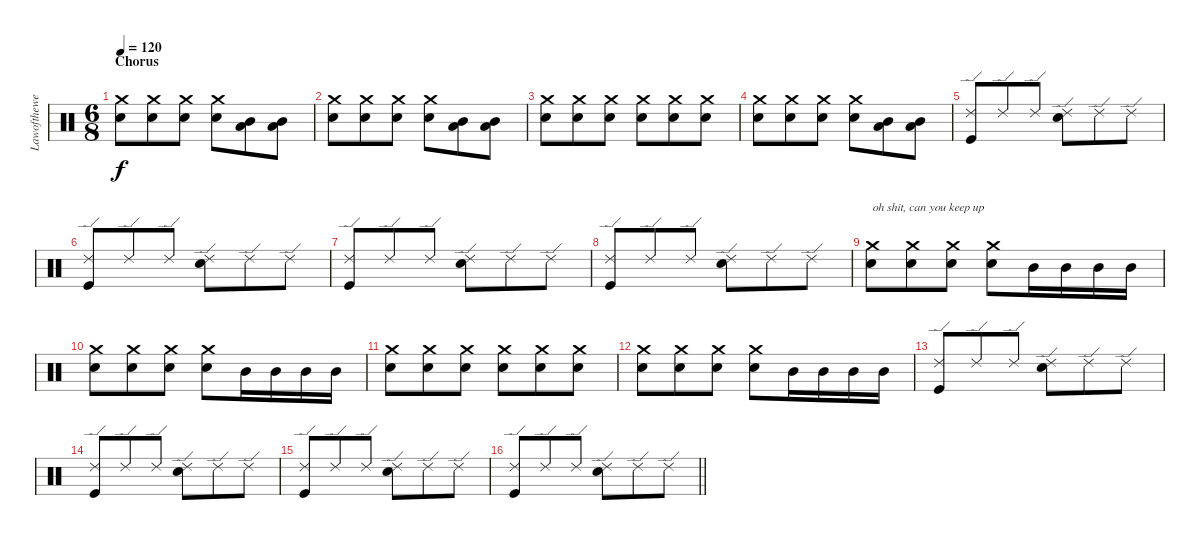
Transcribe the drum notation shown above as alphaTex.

\track ("Lawofthewest (drums)" "Lawofthewe") {instrument percussion}
\staff {score}
\articulation defaults
\ts (6 8)
\section ("" "Chorus")
\tempo 120
\clef neutral
\ks c
("Crash medium (hit)" "Snare (hit) 2").8{dy f} ("Crash medium (hit)" "Snare (hit) 2").8 ("Crash medium (hit)" "Snare (hit) 2").8 ("Crash medium (hit)" "Snare (hit) 2").8 ("Mid Tom (hit)" "Low Tom (hit)").8 ("Mid Tom (hit)" "Low Tom (hit)").8 |
("Crash medium (hit)" "Snare (hit) 2").8 ("Crash medium (hit)" "Snare (hit) 2").8 ("Crash medium (hit)" "Snare (hit) 2").8 ("Crash medium (hit)" "Snare (hit) 2").8 ("Mid Tom (hit)" "Low Tom (hit)").8 ("Mid Tom (hit)" "Low Tom (hit)").8 |
("Crash medium (hit)" "Snare (hit) 2").8 ("Crash medium (hit)" "Snare (hit) 2").8 ("Crash medium (hit)" "Snare (hit) 2").8 ("Crash medium (hit)" "Snare (hit) 2").8 ("Crash medium (hit)" "Snare (hit) 2").8 ("Crash medium (hit)" "Snare (hit) 2").8 |
("Crash medium (hit)" "Snare (hit) 2").8 ("Crash medium (hit)" "Snare (hit) 2").8 ("Crash medium (hit)" "Snare (hit) 2").8 ("Crash medium (hit)" "Snare (hit) 2").8 ("Mid Tom (hit)" "Low Tom (hit)").8 ("Mid Tom (hit)" "Low Tom (hit)").8 |
("Ride (edge) 2" "Kick (hit)").8 "Ride (edge) 2".8 "Ride (edge) 2".8 ("Ride (edge) 2" "Snare (hit) 2").8 "Ride (edge) 2".8 "Ride (edge) 2".8 |
("Ride (edge) 2" "Kick (hit)").8 "Ride (edge) 2".8 "Ride (edge) 2".8 ("Ride (edge) 2" "Snare (hit) 2").8 "Ride (edge) 2".8 "Ride (edge) 2".8 |
("Ride (edge) 2" "Kick (hit)").8 "Ride (edge) 2".8 "Ride (edge) 2".8 ("Ride (edge) 2" "Snare (hit) 2").8 "Ride (edge) 2".8 "Ride (edge) 2".8 |
("Ride (edge) 2" "Kick (hit)").8 "Ride (edge) 2".8 "Ride (edge) 2".8 ("Ride (edge) 2" "Snare (hit) 2").8 "Ride (edge) 2".8 "Ride (edge) 2".8 |
("Crash medium (hit)" "Snare (hit) 2").8{txt "oh shit, can you keep up"} ("Crash medium (hit)" "Snare (hit) 2").8 ("Crash medium (hit)" "Snare (hit) 2").8 ("Crash medium (hit)" "Snare (hit) 2").8 "Mid Tom (hit)".16 "Mid Tom (hit)".16 "Mid Tom (hit)".16 "Mid Tom (hit)".16 |
("Crash medium (hit)" "Snare (hit) 2").8 ("Crash medium (hit)" "Snare (hit) 2").8 ("Crash medium (hit)" "Snare (hit) 2").8 ("Crash medium (hit)" "Snare (hit) 2").8 "Mid Tom (hit)".16 "Mid Tom (hit)".16 "Mid Tom (hit)".16 "Mid Tom (hit)".16 |
("Crash medium (hit)" "Snare (hit) 2").8 ("Crash medium (hit)" "Snare (hit) 2").8 ("Crash medium (hit)" "Snare (hit) 2").8 ("Crash medium (hit)" "Snare (hit) 2").8 ("Crash medium (hit)" "Snare (hit) 2").8 ("Crash medium (hit)" "Snare (hit) 2").8 |
("Crash medium (hit)" "Snare (hit) 2").8 ("Crash medium (hit)" "Snare (hit) 2").8 ("Crash medium (hit)" "Snare (hit) 2").8 ("Crash medium (hit)" "Snare (hit) 2").8 "Mid Tom (hit)".16 "Mid Tom (hit)".16 "Mid Tom (hit)".16 "Mid Tom (hit)".16 |
("Ride (edge) 2" "Kick (hit)").8 "Ride (edge) 2".8 "Ride (edge) 2".8 ("Ride (edge) 2" "Snare (hit) 2").8 "Ride (edge) 2".8 "Ride (edge) 2".8 |
("Ride (edge) 2" "Kick (hit)").8 "Ride (edge) 2".8 "Ride (edge) 2".8 ("Ride (edge) 2" "Snare (hit) 2").8 "Ride (edge) 2".8 "Ride (edge) 2".8 |
("Ride (edge) 2" "Kick (hit)").8 "Ride (edge) 2".8 "Ride (edge) 2".8 ("Ride (edge) 2" "Snare (hit) 2").8 "Ride (edge) 2".8 "Ride (edge) 2".8 |
\barLineRight lightlight
("Ride (edge) 2" "Kick (hit)").8 "Ride (edge) 2".8 "Ride (edge) 2".8 ("Ride (edge) 2" "Snare (hit) 2").8 "Ride (edge) 2".8 "Ride (edge) 2".8
